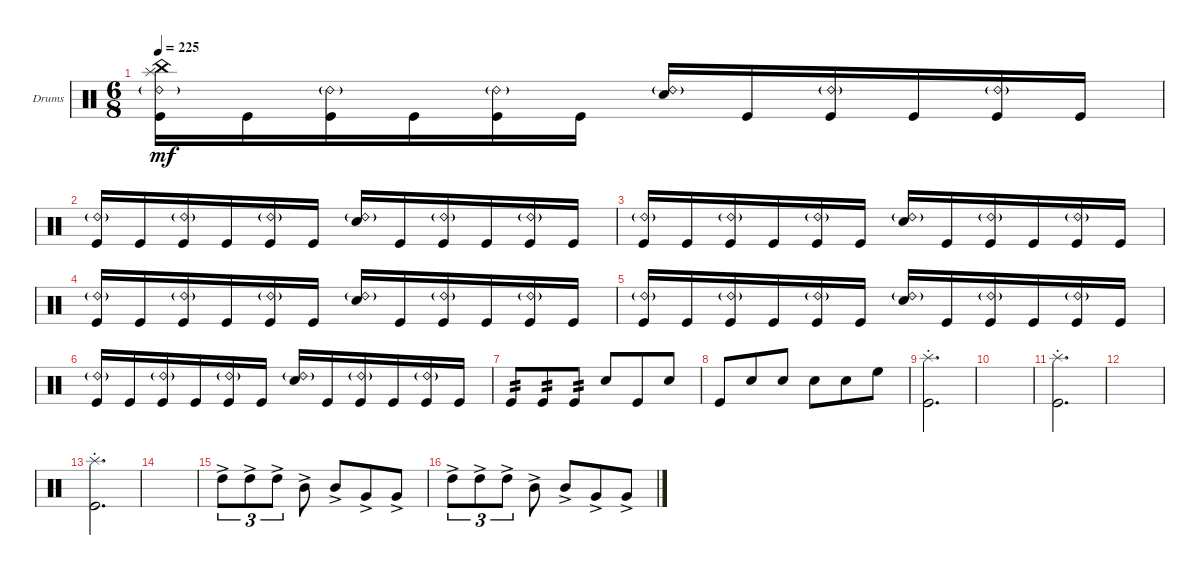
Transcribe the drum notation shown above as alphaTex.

\bracketExtendMode groupsimilarinstruments
\firstSystemTrackNameOrientation horizontal
\otherSystemsTrackNameOrientation horizontal
\track ("Drumkit" "Drums") {instrument percussion}
\staff {score}
\articulation defaults
\ts (6 8)
\tempo 225
\clef neutral
\ks c
("Kick (hit)" "Ride (bell) 2"{g} "Splash (hit)" "China (hit)").16{dy mf} "Kick (hit)".16 ("Kick (hit)" "Ride (bell) 2"{g}).16 "Kick (hit)".16 ("Kick (hit)" "Ride (bell) 2"{g}).16 "Kick (hit)".16 ("Snare (hit) 2" "Ride (bell) 2"{g}).16 "Kick (hit)".16 ("Kick (hit)" "Ride (bell) 2"{g}).16 "Kick (hit)".16 ("Kick (hit)" "Ride (bell) 2"{g}).16 "Kick (hit)".16 |
("Kick (hit)" "Ride (bell) 2"{g}).16 "Kick (hit)".16 ("Kick (hit)" "Ride (bell) 2"{g}).16 "Kick (hit)".16 ("Kick (hit)" "Ride (bell) 2"{g}).16 "Kick (hit)".16 ("Snare (hit) 2" "Ride (bell) 2"{g}).16 "Kick (hit)".16 ("Kick (hit)" "Ride (bell) 2"{g}).16 "Kick (hit)".16 ("Kick (hit)" "Ride (bell) 2"{g}).16 "Kick (hit)".16 |
("Kick (hit)" "Ride (bell) 2"{g}).16 "Kick (hit)".16 ("Kick (hit)" "Ride (bell) 2"{g}).16 "Kick (hit)".16 ("Kick (hit)" "Ride (bell) 2"{g}).16 "Kick (hit)".16 ("Snare (hit) 2" "Ride (bell) 2"{g}).16 "Kick (hit)".16 ("Kick (hit)" "Ride (bell) 2"{g}).16 "Kick (hit)".16 ("Kick (hit)" "Ride (bell) 2"{g}).16 "Kick (hit)".16 |
("Kick (hit)" "Ride (bell) 2"{g}).16 "Kick (hit)".16 ("Kick (hit)" "Ride (bell) 2"{g}).16 "Kick (hit)".16 ("Kick (hit)" "Ride (bell) 2"{g}).16 "Kick (hit)".16 ("Snare (hit) 2" "Ride (bell) 2"{g}).16 "Kick (hit)".16 ("Kick (hit)" "Ride (bell) 2"{g}).16 "Kick (hit)".16 ("Kick (hit)" "Ride (bell) 2"{g}).16 "Kick (hit)".16 |
("Kick (hit)" "Ride (bell) 2"{g}).16 "Kick (hit)".16 ("Kick (hit)" "Ride (bell) 2"{g}).16 "Kick (hit)".16 ("Kick (hit)" "Ride (bell) 2"{g}).16 "Kick (hit)".16 ("Snare (hit) 2" "Ride (bell) 2"{g}).16 "Kick (hit)".16 ("Kick (hit)" "Ride (bell) 2"{g}).16 "Kick (hit)".16 ("Kick (hit)" "Ride (bell) 2"{g}).16 "Kick (hit)".16 |
("Kick (hit)" "Ride (bell) 2"{g}).16 "Kick (hit)".16 ("Kick (hit)" "Ride (bell) 2"{g}).16 "Kick (hit)".16 ("Kick (hit)" "Ride (bell) 2"{g}).16 "Kick (hit)".16 ("Snare (hit) 2" "Ride (bell) 2"{g}).16 "Kick (hit)".16 ("Kick (hit)" "Ride (bell) 2"{g}).16 "Kick (hit)".16 ("Kick (hit)" "Ride (bell) 2"{g}).16 "Kick (hit)".16 |
"Kick (hit)".8{tp 2} "Kick (hit)".8{tp 2} "Kick (hit)".8{tp 2} "Snare (hit) 2".8 "Kick (hit)".8 "Snare (hit) 2".8 |
"Kick (hit)".8 "Snare (hit) 2".8 "Snare (hit) 2".8 "Snare (hit) 2".8 "Snare (hit) 2".8 "High Floor Tom (hit)".8 |
("Kick (hit)" "Splash (hit)"{st}).2{d} |
|
("Kick (hit)" "Splash (hit)"{st}).2{d} |
|
("Kick (hit)" "Splash (hit)"{st}).2{d} |
|
"High Tom (hit)"{ac}.8{tu (3 2)} "High Tom (hit)"{ac}.8{tu (3 2)} "High Tom (hit)"{ac}.8{tu (3 2)} "Mid Tom (hit)"{ac}.8 "Mid Tom (hit)"{ac}.8 "Very Low Tom (hit)"{ac}.8 "Very Low Tom (hit)"{ac}.8 |
"High Tom (hit)"{ac}.8{tu (3 2)} "High Tom (hit)"{ac}.8{tu (3 2)} "High Tom (hit)"{ac}.8{tu (3 2)} "Mid Tom (hit)"{ac}.8 "Mid Tom (hit)"{ac}.8 "Very Low Tom (hit)"{ac}.8 "Very Low Tom (hit)"{ac}.8
